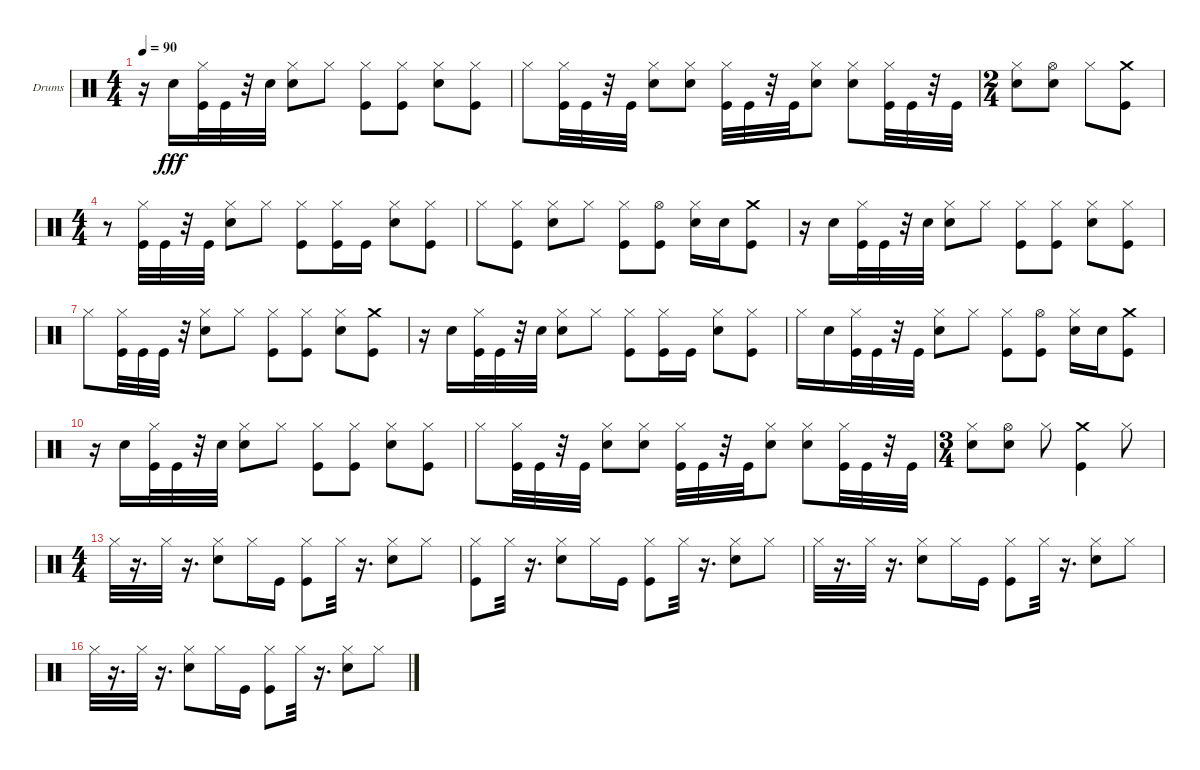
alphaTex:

\bracketExtendMode nobrackets
\firstSystemTrackNameOrientation horizontal
\otherSystemsTrackNameOrientation horizontal
\defaultBarNumberDisplay FirstOfSystem
\track ("Drums" "Drums") {instrument percussion}
\staff {score}
\articulation defaults
\ts (4 4)
\tempo 90
\clef neutral
\ks c
r.16{dy fff} "Snare (hit) 2".16 ("Kick (hit)" "Hi-Hat (closed)").32 "Kick (hit)".32 r.32 "Snare (hit) 2".32 ("Hi-Hat (closed)" "Snare (hit) 2").8 "Hi-Hat (closed)".8 ("Kick (hit)" "Hi-Hat (closed)").8 ("Hi-Hat (closed)" "Kick (hit)").8 ("Snare (hit) 2" "Hi-Hat (closed)").8 ("Hi-Hat (closed)" "Kick (hit)").8 |
"Hi-Hat (closed)".8 ("Kick (hit)" "Hi-Hat (closed)").32 "Kick (hit)".32 r.32 "Kick (hit)".32 ("Snare (hit) 2" "Hi-Hat (closed)").8 ("Snare (hit) 2" "Hi-Hat (closed)").8 ("Hi-Hat (closed)" "Kick (hit)").32 "Kick (hit)".32 r.32 "Kick (hit)".32 ("Snare (hit) 2" "Hi-Hat (closed)").8 ("Snare (hit) 2" "Hi-Hat (closed)").8 ("Hi-Hat (closed)" "Kick (hit)").32 "Kick (hit)".32 r.32 "Kick (hit)".32 |
\ts (2 4)
("Hi-Hat (closed)" "Snare (hit) 2").8 ("Hi-Hat (open)" "Snare (hit) 2").8 "Hi-Hat (closed)".8 ("Crash medium (hit)" "Kick (hit)").8 |
\ts (4 4)
r.8 ("Kick (hit)" "Hi-Hat (closed)").32 "Kick (hit)".32 r.32 "Kick (hit)".32 ("Hi-Hat (closed)" "Snare (hit) 2").8 "Hi-Hat (closed)".8 ("Kick (hit)" "Hi-Hat (closed)").8 ("Kick (hit)" "Hi-Hat (closed)").16 "Kick (hit)".16 ("Hi-Hat (closed)" "Snare (hit) 2").8 ("Hi-Hat (closed)" "Kick (hit)").8 |
"Hi-Hat (closed)".8 ("Hi-Hat (closed)" "Kick (hit)").8 ("Snare (hit) 2" "Hi-Hat (closed)").8 "Hi-Hat (closed)".8 ("Kick (hit)" "Hi-Hat (closed)").8 ("Kick (hit)" "Hi-Hat (open)").8 ("Hi-Hat (closed)" "Snare (hit) 2").16 "Snare (hit) 2".16 ("Kick (hit)" "Crash medium (hit)").8 |
r.16 "Snare (hit) 2".16 ("Hi-Hat (closed)" "Kick (hit)").32 "Kick (hit)".32 r.32 "Snare (hit) 2".32 ("Snare (hit) 2" "Hi-Hat (closed)").8 "Hi-Hat (closed)".8 ("Kick (hit)" "Hi-Hat (closed)").8 ("Kick (hit)" "Hi-Hat (closed)").8 ("Hi-Hat (closed)" "Snare (hit) 2").8 ("Hi-Hat (closed)" "Kick (hit)").8 |
"Hi-Hat (closed)".8 ("Kick (hit)" "Hi-Hat (closed)").32 "Kick (hit)".32 "Kick (hit)".32 r.32 ("Snare (hit) 2" "Hi-Hat (closed)").8 "Hi-Hat (closed)".8 ("Kick (hit)" "Hi-Hat (closed)").8 ("Kick (hit)" "Hi-Hat (closed)").8 ("Hi-Hat (closed)" "Snare (hit) 2").8 ("Kick (hit)" "Crash medium (hit)").8 |
r.16 "Snare (hit) 2".16 ("Kick (hit)" "Hi-Hat (closed)").32 "Kick (hit)".32 r.32 "Snare (hit) 2".32 ("Snare (hit) 2" "Hi-Hat (closed)").8 "Hi-Hat (closed)".8 ("Kick (hit)" "Hi-Hat (closed)").8 ("Hi-Hat (closed)" "Kick (hit)").16 "Kick (hit)".16 ("Hi-Hat (closed)" "Snare (hit) 2").8 ("Kick (hit)" "Hi-Hat (closed)").8 |
"Hi-Hat (closed)".16 "Snare (hit) 2".16 ("Hi-Hat (closed)" "Kick (hit)").32 "Kick (hit)".32 r.32 "Kick (hit)".32 ("Snare (hit) 2" "Hi-Hat (closed)").8 "Hi-Hat (closed)".8 ("Kick (hit)" "Hi-Hat (closed)").8 ("Kick (hit)" "Hi-Hat (open)").8 ("Hi-Hat (closed)" "Snare (hit) 2").16 "Snare (hit) 2".16 ("Crash medium (hit)" "Kick (hit)").8 |
r.16 "Snare (hit) 2".16 ("Kick (hit)" "Hi-Hat (closed)").32 "Kick (hit)".32 r.32 "Snare (hit) 2".32 ("Hi-Hat (closed)" "Snare (hit) 2").8 "Hi-Hat (closed)".8 ("Kick (hit)" "Hi-Hat (closed)").8 ("Hi-Hat (closed)" "Kick (hit)").8 ("Snare (hit) 2" "Hi-Hat (closed)").8 ("Hi-Hat (closed)" "Kick (hit)").8 |
"Hi-Hat (closed)".8 ("Kick (hit)" "Hi-Hat (closed)").32 "Kick (hit)".32 r.32 "Kick (hit)".32 ("Snare (hit) 2" "Hi-Hat (closed)").8 ("Snare (hit) 2" "Hi-Hat (closed)").8 ("Hi-Hat (closed)" "Kick (hit)").32 "Kick (hit)".32 r.32 "Kick (hit)".32 ("Snare (hit) 2" "Hi-Hat (closed)").8 ("Snare (hit) 2" "Hi-Hat (closed)").8 ("Hi-Hat (closed)" "Kick (hit)").32 "Kick (hit)".32 r.32 "Kick (hit)".32 |
\ts (3 4)
("Snare (hit) 2" "Hi-Hat (closed)").8 ("Hi-Hat (open)" "Snare (hit) 2").8 "Hi-Hat (closed)".8 ("Crash medium (hit)" "Kick (hit)").4 "Hi-Hat (closed)".8 |
\ts (4 4)
"Hi-Hat (closed)".32 r.16{d} "Hi-Hat (closed)".32 r.16{d} ("Hi-Hat (closed)" "Snare (hit) 2").8 "Hi-Hat (closed)".16 "Kick (hit)".16 ("Kick (hit)" "Hi-Hat (closed)").8 "Hi-Hat (closed)".32 r.16{d} ("Hi-Hat (closed)" "Snare (hit) 2").8 "Hi-Hat (closed)".8 |
("Kick (hit)" "Hi-Hat (closed)").8 "Hi-Hat (closed)".32 r.16{d} ("Hi-Hat (closed)" "Snare (hit) 2").8 "Hi-Hat (closed)".16 "Kick (hit)".16 ("Kick (hit)" "Hi-Hat (closed)").8 "Hi-Hat (closed)".32 r.16{d} ("Hi-Hat (closed)" "Snare (hit) 2").8 "Hi-Hat (closed)".8 |
"Hi-Hat (closed)".32 r.16{d} "Hi-Hat (closed)".32 r.16{d} ("Hi-Hat (closed)" "Snare (hit) 2").8 "Hi-Hat (closed)".16 "Kick (hit)".16 ("Kick (hit)" "Hi-Hat (closed)").8 "Hi-Hat (closed)".32 r.16{d} ("Hi-Hat (closed)" "Snare (hit) 2").8 "Hi-Hat (closed)".8 |
"Hi-Hat (closed)".32 r.16{d} "Hi-Hat (closed)".32 r.16{d} ("Hi-Hat (closed)" "Snare (hit) 2").8 "Hi-Hat (closed)".16 "Kick (hit)".16 ("Kick (hit)" "Hi-Hat (closed)").8 "Hi-Hat (closed)".32 r.16{d} ("Hi-Hat (closed)" "Snare (hit) 2").8 "Hi-Hat (closed)".8
